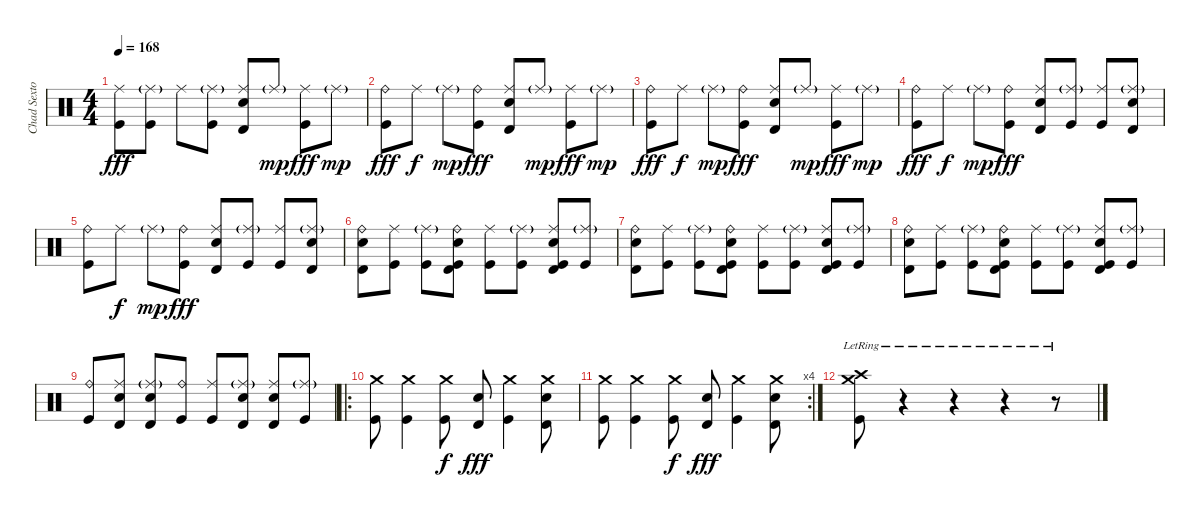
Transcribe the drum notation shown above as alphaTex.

\track ("Chad Sexton" "Chad Sexto") {instrument percussion}
\staff {score}
\articulation defaults
\ts (4 4)
\tempo 168
\clef neutral
\ks c
("Ride (middle)" "Kick (hit)").8{dy fff} ("Ride (middle)"{g} "Kick (hit)").8 "Ride (middle)".8 ("Ride (middle)"{g} "Kick (hit)").8 ("Ride (middle)" "Electric Snare (hit)" "Timbale high (hit)").8 "Ride (middle)"{g}.8{dy mp} ("Ride (middle)" "Kick (hit)").8{dy fff} "Ride (middle)"{g}.8{dy mp} |
("Ride (bell)" "Kick (hit)").8{dy fff} "Ride (middle)".8{dy f} "Ride (middle)"{g}.8{dy mp} ("Ride (bell)" "Kick (hit)").8{dy fff} ("Ride (middle)" "Electric Snare (hit)" "Timbale high (hit)").8 "Ride (middle)"{g}.8{dy mp} ("Ride (middle)" "Kick (hit)").8{dy fff} "Ride (middle)"{g}.8{dy mp} |
("Ride (bell)" "Kick (hit)").8{dy fff} "Ride (middle)".8{dy f} "Ride (middle)"{g}.8{dy mp} ("Ride (bell)" "Kick (hit)").8{dy fff} ("Ride (middle)" "Electric Snare (hit)" "Timbale high (hit)").8 "Ride (middle)"{g}.8{dy mp} ("Ride (middle)" "Kick (hit)").8{dy fff} "Ride (middle)"{g}.8{dy mp} |
("Ride (bell)" "Kick (hit)").8{dy fff} "Ride (middle)".8{dy f} "Ride (middle)"{g}.8{dy mp} ("Ride (bell)" "Kick (hit)").8{dy fff} ("Ride (middle)" "Electric Snare (hit)" "Timbale high (hit)").8 ("Ride (middle)"{g} "Kick (hit)").8 ("Ride (middle)" "Kick (hit)").8 ("Ride (middle)"{g} "Electric Snare (hit)" "Timbale high (hit)").8 |
("Ride (bell)" "Kick (hit)").8 "Ride (middle)".8{dy f} "Ride (middle)"{g}.8{dy mp} ("Ride (bell)" "Kick (hit)").8{dy fff} ("Ride (middle)" "Electric Snare (hit)" "Timbale high (hit)").8 ("Ride (middle)"{g} "Kick (hit)").8 ("Ride (middle)" "Kick (hit)").8 ("Ride (middle)"{g} "Electric Snare (hit)" "Timbale high (hit)").8 |
("Ride (bell)" "Electric Snare (hit)" "Timbale high (hit)").8 ("Ride (middle)" "Kick (hit)").8 ("Ride (middle)"{g} "Kick (hit)").8 ("Timbale high (hit)" "Ride (bell)" "Electric Snare (hit)" "Kick (hit)").8 ("Ride (middle)" "Kick (hit)").8 ("Ride (middle)"{g} "Kick (hit)").8 ("Timbale high (hit)" "Ride (middle)" "Electric Snare (hit)" "Kick (hit)").8 ("Ride (middle)"{g} "Kick (hit)").8 |
("Ride (bell)" "Electric Snare (hit)" "Timbale high (hit)").8 ("Ride (middle)" "Kick (hit)").8 ("Ride (middle)"{g} "Kick (hit)").8 ("Timbale high (hit)" "Ride (bell)" "Electric Snare (hit)" "Kick (hit)").8 ("Ride (middle)" "Kick (hit)").8 ("Ride (middle)"{g} "Kick (hit)").8 ("Timbale high (hit)" "Ride (middle)" "Electric Snare (hit)" "Kick (hit)").8 ("Ride (middle)"{g} "Kick (hit)").8 |
("Ride (bell)" "Electric Snare (hit)" "Timbale high (hit)").8 ("Ride (middle)" "Kick (hit)").8 ("Ride (middle)"{g} "Kick (hit)").8 ("Timbale high (hit)" "Ride (bell)" "Electric Snare (hit)" "Kick (hit)").8 ("Ride (middle)" "Kick (hit)").8 ("Ride (middle)"{g} "Kick (hit)").8 ("Timbale high (hit)" "Ride (middle)" "Electric Snare (hit)" "Kick (hit)").8 ("Ride (middle)"{g} "Kick (hit)").8 |
("Ride (bell)" "Kick (hit)").8 ("Ride (middle)" "Electric Snare (hit)" "Timbale high (hit)").8 ("Ride (middle)"{g} "Electric Snare (hit)" "Timbale high (hit)").8 ("Ride (bell)" "Kick (hit)").8 ("Ride (middle)" "Kick (hit)").8 ("Ride (middle)"{g} "Electric Snare (hit)" "Timbale high (hit)").8 ("Ride (middle)" "Electric Snare (hit)" "Timbale high (hit)").8 ("Ride (middle)"{g} "Kick (hit)").8 |
\ro
("Crash medium (hit)" "Kick (hit)").8 ("Crash medium (hit)" "Kick (hit)").4 ("Crash medium (hit)" "Kick (hit)").8{dy f} ("Electric Snare (hit)" "Timbale high (hit)").8{dy fff} ("Crash medium (hit)" "Kick (hit)").4 ("Crash medium (hit)" "Electric Snare (hit)" "Timbale high (hit)").8 |
\rc 4
("Crash medium (hit)" "Kick (hit)").8 ("Crash medium (hit)" "Kick (hit)").4 ("Crash medium (hit)" "Kick (hit)").8{dy f} ("Electric Snare (hit)" "Timbale high (hit)").8{dy fff} ("Crash medium (hit)" "Kick (hit)").4 ("Crash medium (hit)" "Electric Snare (hit)" "Timbale high (hit)").8 |
("Crash medium (hit)"{lr} "Crash high (hit)" "Kick (hit)"{lr}).8 r.4 r.4 r.4 r.8
